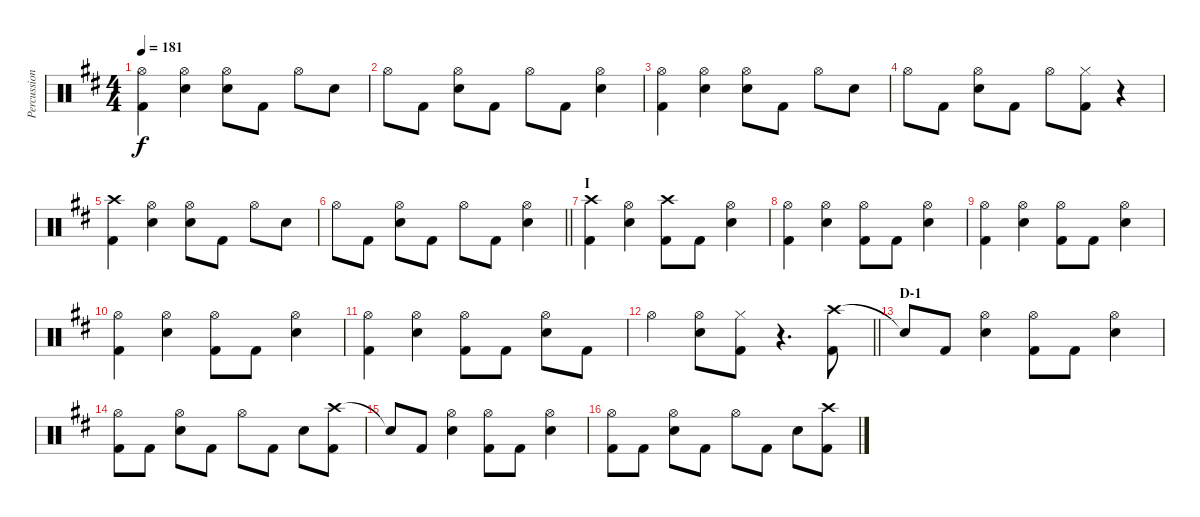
\track ("Percussion" "Percussion") {instrument percussion}
\staff {score}
\articulation defaults
\ts (4 4)
\tempo 181
\clef neutral
\ks d
("Hi-Hat (open)" "Kick (hit) 2").4{dy f} ("Hi-Hat (open)" "Snare (hit) 2").4 ("Hi-Hat (open)" "Snare (hit) 2").8 "Kick (hit) 2".8 "Hi-Hat (open)".8 "Snare (hit) 2".8 |
"Hi-Hat (open)".8 "Kick (hit) 2".8 ("Hi-Hat (open)" "Snare (hit) 2").8 "Kick (hit) 2".8 "Hi-Hat (open)".8 "Kick (hit) 2".8 ("Hi-Hat (open)" "Snare (hit) 2").4 |
("Hi-Hat (open)" "Kick (hit) 2").4 ("Hi-Hat (open)" "Snare (hit) 2").4 ("Hi-Hat (open)" "Snare (hit) 2").8 "Kick (hit) 2".8 "Hi-Hat (open)".8 "Snare (hit) 2".8 |
"Hi-Hat (open)".8 "Kick (hit) 2".8 ("Hi-Hat (open)" "Snare (hit) 2").8 "Kick (hit) 2".8 "Hi-Hat (open)".8 ("Hi-Hat (closed)" "Kick (hit) 2").8 r.4 |
("Crash high (hit)" "Kick (hit) 2").4 ("Hi-Hat (open)" "Snare (hit) 2").4 ("Hi-Hat (open)" "Snare (hit) 2").8 "Kick (hit) 2".8 "Hi-Hat (open)".8 "Snare (hit) 2".8 |
\barLineRight lightlight "Hi-Hat (open)".8 "Kick (hit) 2".8
("Hi-Hat (open)" "Snare (hit) 2").8 "Kick (hit) 2".8 "Hi-Hat (open)".8 "Kick (hit) 2".8 ("Hi-Hat (open)" "Snare (hit) 2").4 |
\section ("" "I")
("Crash high (hit)" "Kick (hit) 2").4 ("Hi-Hat (open)" "Snare (hit) 2").4 ("Crash high (hit)" "Kick (hit) 2").8 "Kick (hit) 2".8 ("Hi-Hat (open)" "Snare (hit) 2").4 |
("Hi-Hat (open)" "Kick (hit) 2").4 ("Hi-Hat (open)" "Snare (hit) 2").4 ("Hi-Hat (open)" "Kick (hit) 2").8 "Kick (hit) 2".8 ("Hi-Hat (open)" "Snare (hit) 2").4 |
("Hi-Hat (open)" "Kick (hit) 2").4 ("Hi-Hat (open)" "Snare (hit) 2").4 ("Hi-Hat (open)" "Kick (hit) 2").8 "Kick (hit) 2".8 ("Hi-Hat (open)" "Snare (hit) 2").4 |
("Hi-Hat (open)" "Kick (hit) 2").4 ("Hi-Hat (open)" "Snare (hit) 2").4 ("Hi-Hat (open)" "Kick (hit) 2").8 "Kick (hit) 2".8 ("Hi-Hat (open)" "Snare (hit) 2").4 |
("Hi-Hat (open)" "Kick (hit) 2").4 ("Hi-Hat (open)" "Snare (hit) 2").4 ("Hi-Hat (open)" "Kick (hit) 2").8 "Kick (hit) 2".8 ("Hi-Hat (open)" "Snare (hit) 2").8 "Kick (hit) 2".8 |
\barLineRight lightlight "Hi-Hat (open)".4
("Hi-Hat (open)" "Snare (hit) 2").8 ("Hi-Hat (closed)" "Kick (hit) 2").8 r.4{d} ("Crash high (hit)" "Kick (hit) 2").8 |
\section ("" "D-1")
"Snare (hit)"{t}.8 "Kick (hit) 2".8 ("Hi-Hat (open)" "Snare (hit) 2").4 ("Hi-Hat (open)" "Kick (hit) 2").8 "Kick (hit) 2".8 ("Hi-Hat (open)" "Snare (hit) 2").4 |
("Hi-Hat (open)" "Kick (hit) 2").8 "Kick (hit) 2".8 ("Hi-Hat (open)" "Snare (hit) 2").8 "Kick (hit) 2".8 "Hi-Hat (open)".8 "Kick (hit) 2".8 "Snare (hit) 2".8 ("Crash high (hit)" "Kick (hit) 2").8 |
"Snare (hit)"{t}.8 "Kick (hit) 2".8 ("Hi-Hat (open)" "Snare (hit) 2").4 ("Hi-Hat (open)" "Kick (hit) 2").8 "Kick (hit) 2".8 ("Hi-Hat (open)" "Snare (hit) 2").4 |
("Hi-Hat (open)" "Kick (hit) 2").8 "Kick (hit) 2".8 ("Hi-Hat (open)" "Snare (hit) 2").8 "Kick (hit) 2".8 "Hi-Hat (open)".8 "Kick (hit) 2".8 "Snare (hit) 2".8 ("Crash high (hit)" "Kick (hit) 2").8
